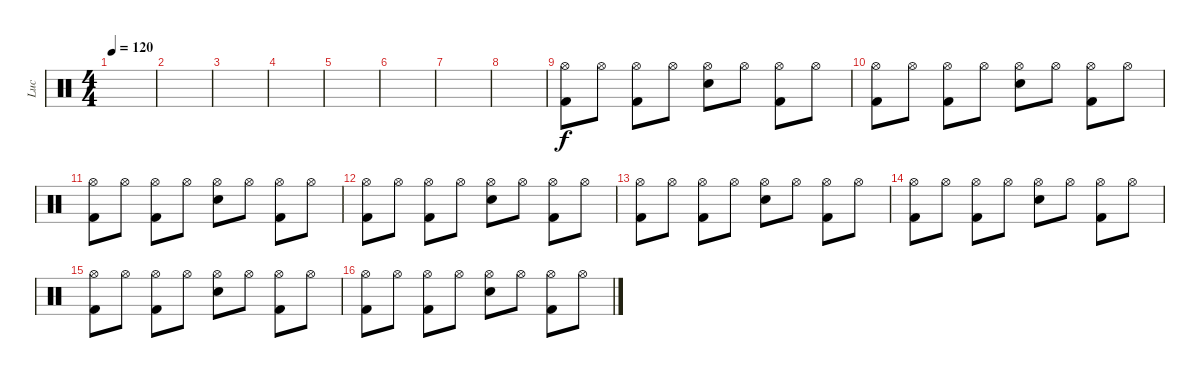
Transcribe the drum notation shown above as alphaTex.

\track ("Luc" "Luc") {instrument percussion}
\staff {score}
\articulation defaults
\ts (4 4)
\tempo 120
\clef neutral
\ks c
|
|
|
|
|
|
|
|
("Hi-Hat (open)" "Kick (hit) 2").8 "Hi-Hat (open)".8 ("Hi-Hat (open)" "Kick (hit) 2").8 "Hi-Hat (open)".8 ("Hi-Hat (open)" "Snare (hit) 2").8 "Hi-Hat (open)".8 ("Hi-Hat (open)" "Kick (hit) 2").8 "Hi-Hat (open)".8 |
("Hi-Hat (open)" "Kick (hit) 2").8 "Hi-Hat (open)".8 ("Hi-Hat (open)" "Kick (hit) 2").8 "Hi-Hat (open)".8 ("Hi-Hat (open)" "Snare (hit) 2").8 "Hi-Hat (open)".8 ("Hi-Hat (open)" "Kick (hit) 2").8 "Hi-Hat (open)".8 |
("Hi-Hat (open)" "Kick (hit) 2").8 "Hi-Hat (open)".8 ("Hi-Hat (open)" "Kick (hit) 2").8 "Hi-Hat (open)".8 ("Hi-Hat (open)" "Snare (hit) 2").8 "Hi-Hat (open)".8 ("Hi-Hat (open)" "Kick (hit) 2").8 "Hi-Hat (open)".8 |
("Hi-Hat (open)" "Kick (hit) 2").8 "Hi-Hat (open)".8 ("Hi-Hat (open)" "Kick (hit) 2").8 "Hi-Hat (open)".8 ("Hi-Hat (open)" "Snare (hit) 2").8 "Hi-Hat (open)".8 ("Hi-Hat (open)" "Kick (hit) 2").8 "Hi-Hat (open)".8 |
("Hi-Hat (open)" "Kick (hit) 2").8 "Hi-Hat (open)".8 ("Hi-Hat (open)" "Kick (hit) 2").8 "Hi-Hat (open)".8 ("Hi-Hat (open)" "Snare (hit) 2").8 "Hi-Hat (open)".8 ("Hi-Hat (open)" "Kick (hit) 2").8 "Hi-Hat (open)".8 |
("Hi-Hat (open)" "Kick (hit) 2").8 "Hi-Hat (open)".8 ("Hi-Hat (open)" "Kick (hit) 2").8 "Hi-Hat (open)".8 ("Hi-Hat (open)" "Snare (hit) 2").8 "Hi-Hat (open)".8 ("Hi-Hat (open)" "Kick (hit) 2").8 "Hi-Hat (open)".8 |
("Hi-Hat (open)" "Kick (hit) 2").8 "Hi-Hat (open)".8 ("Hi-Hat (open)" "Kick (hit) 2").8 "Hi-Hat (open)".8 ("Hi-Hat (open)" "Snare (hit) 2").8 "Hi-Hat (open)".8 ("Hi-Hat (open)" "Kick (hit) 2").8 "Hi-Hat (open)".8 |
("Hi-Hat (open)" "Kick (hit) 2").8 "Hi-Hat (open)".8 ("Hi-Hat (open)" "Kick (hit) 2").8 "Hi-Hat (open)".8 ("Hi-Hat (open)" "Snare (hit) 2").8 "Hi-Hat (open)".8 ("Hi-Hat (open)" "Kick (hit) 2").8 "Hi-Hat (open)".8
